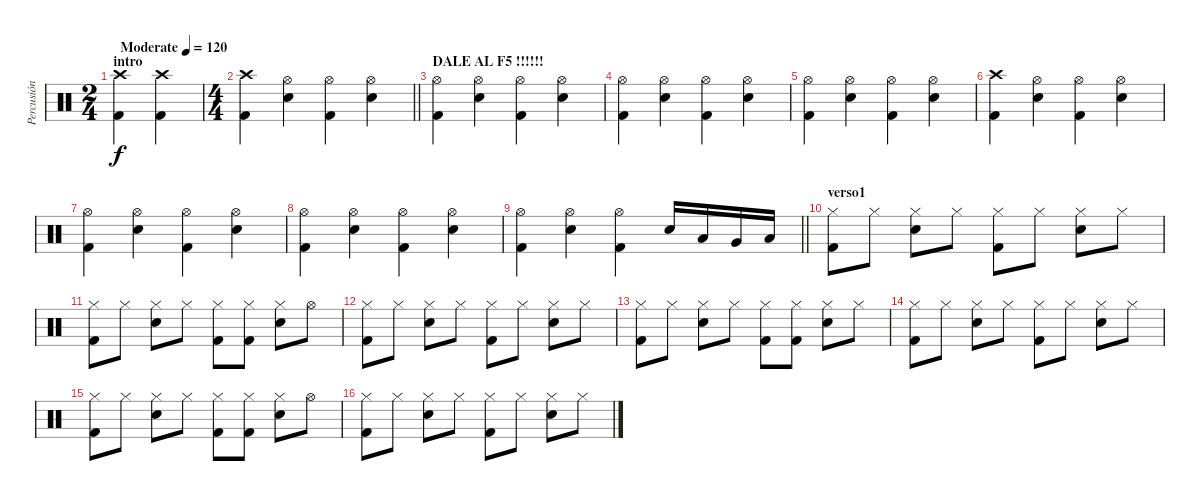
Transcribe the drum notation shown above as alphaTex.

\track ("Percusión" "Percusión") {instrument percussion}
\staff {score}
\articulation defaults
\ts (2 4)
\section ("" "intro")
\tempo (120 "Moderate")
\clef neutral
\ks c
("Crash high (hit)" "Kick (hit) 2").4{dy f} ("Crash high (hit)" "Kick (hit) 2").4 |
\ts (4 4)
\barLineRight lightlight
("Crash high (hit)" "Kick (hit) 2").4 ("Hi-Hat (open)" "Electric Snare (hit)").4 ("Hi-Hat (open)" "Kick (hit) 2").4 ("Hi-Hat (open)" "Electric Snare (hit)").4 |
\section ("" "DALE AL F5 !!!!!!")
("Hi-Hat (open)" "Kick (hit) 2").4 ("Hi-Hat (open)" "Electric Snare (hit)").4 ("Hi-Hat (open)" "Kick (hit) 2").4 ("Hi-Hat (open)" "Electric Snare (hit)").4 |
("Hi-Hat (open)" "Kick (hit) 2").4 ("Hi-Hat (open)" "Electric Snare (hit)").4 ("Hi-Hat (open)" "Kick (hit) 2").4 ("Hi-Hat (open)" "Electric Snare (hit)").4 |
("Hi-Hat (open)" "Kick (hit) 2").4 ("Hi-Hat (open)" "Electric Snare (hit)").4 ("Hi-Hat (open)" "Kick (hit) 2").4 ("Hi-Hat (open)" "Electric Snare (hit)").4 |
("Crash high (hit)" "Kick (hit) 2").4 ("Hi-Hat (open)" "Electric Snare (hit)").4 ("Hi-Hat (open)" "Kick (hit) 2").4 ("Hi-Hat (open)" "Electric Snare (hit)").4 |
("Hi-Hat (open)" "Kick (hit) 2").4 ("Hi-Hat (open)" "Electric Snare (hit)").4 ("Hi-Hat (open)" "Kick (hit) 2").4 ("Hi-Hat (open)" "Electric Snare (hit)").4 |
("Hi-Hat (open)" "Kick (hit) 2").4 ("Hi-Hat (open)" "Electric Snare (hit)").4 ("Hi-Hat (open)" "Kick (hit) 2").4 ("Hi-Hat (open)" "Electric Snare (hit)").4 |
\barLineRight lightlight
("Hi-Hat (open)" "Kick (hit) 2").4 ("Hi-Hat (open)" "Electric Snare (hit)").4 ("Hi-Hat (open)" "Kick (hit) 2").4 "Electric Snare (hit)".16 "Low Tom (hit)".16 "Very Low Tom (hit)".16 "Low Floor Tom (hit)".16 |
\section ("" "verso1")
("Hi-Hat (closed)" "Kick (hit) 2").8 "Hi-Hat (closed)".8 ("Hi-Hat (closed)" "Electric Snare (hit)").8 "Hi-Hat (closed)".8 ("Hi-Hat (closed)" "Kick (hit) 2").8 "Hi-Hat (closed)".8 ("Hi-Hat (closed)" "Electric Snare (hit)").8 "Hi-Hat (closed)".8 |
("Hi-Hat (closed)" "Kick (hit) 2").8 "Hi-Hat (closed)".8 ("Hi-Hat (closed)" "Electric Snare (hit)").8 "Hi-Hat (closed)".8 ("Hi-Hat (closed)" "Kick (hit) 2").8 ("Hi-Hat (closed)" "Kick (hit) 2").8 ("Hi-Hat (closed)" "Electric Snare (hit)").8 "Hi-Hat (open)".8 |
("Hi-Hat (closed)" "Kick (hit) 2").8 "Hi-Hat (closed)".8 ("Hi-Hat (closed)" "Electric Snare (hit)").8 "Hi-Hat (closed)".8 ("Hi-Hat (closed)" "Kick (hit) 2").8 "Hi-Hat (closed)".8 ("Hi-Hat (closed)" "Electric Snare (hit)").8 "Hi-Hat (closed)".8 |
("Hi-Hat (closed)" "Kick (hit) 2").8 "Hi-Hat (closed)".8 ("Hi-Hat (closed)" "Electric Snare (hit)").8 "Hi-Hat (closed)".8 ("Hi-Hat (closed)" "Kick (hit) 2").8 ("Hi-Hat (closed)" "Kick (hit) 2").8 ("Hi-Hat (closed)" "Electric Snare (hit)").8 "Hi-Hat (closed)".8 |
("Hi-Hat (closed)" "Kick (hit) 2").8 "Hi-Hat (closed)".8 ("Hi-Hat (closed)" "Electric Snare (hit)").8 "Hi-Hat (closed)".8 ("Hi-Hat (closed)" "Kick (hit) 2").8 "Hi-Hat (closed)".8 ("Hi-Hat (closed)" "Electric Snare (hit)").8 "Hi-Hat (closed)".8 |
("Hi-Hat (closed)" "Kick (hit) 2").8 "Hi-Hat (closed)".8 ("Hi-Hat (closed)" "Electric Snare (hit)").8 "Hi-Hat (closed)".8 ("Hi-Hat (closed)" "Kick (hit) 2").8 ("Hi-Hat (closed)" "Kick (hit) 2").8 ("Hi-Hat (closed)" "Electric Snare (hit)").8 "Hi-Hat (open)".8 |
("Hi-Hat (closed)" "Kick (hit) 2").8 "Hi-Hat (closed)".8 ("Hi-Hat (closed)" "Electric Snare (hit)").8 "Hi-Hat (closed)".8 ("Hi-Hat (closed)" "Kick (hit) 2").8 "Hi-Hat (closed)".8 ("Hi-Hat (closed)" "Electric Snare (hit)").8 "Hi-Hat (closed)".8
